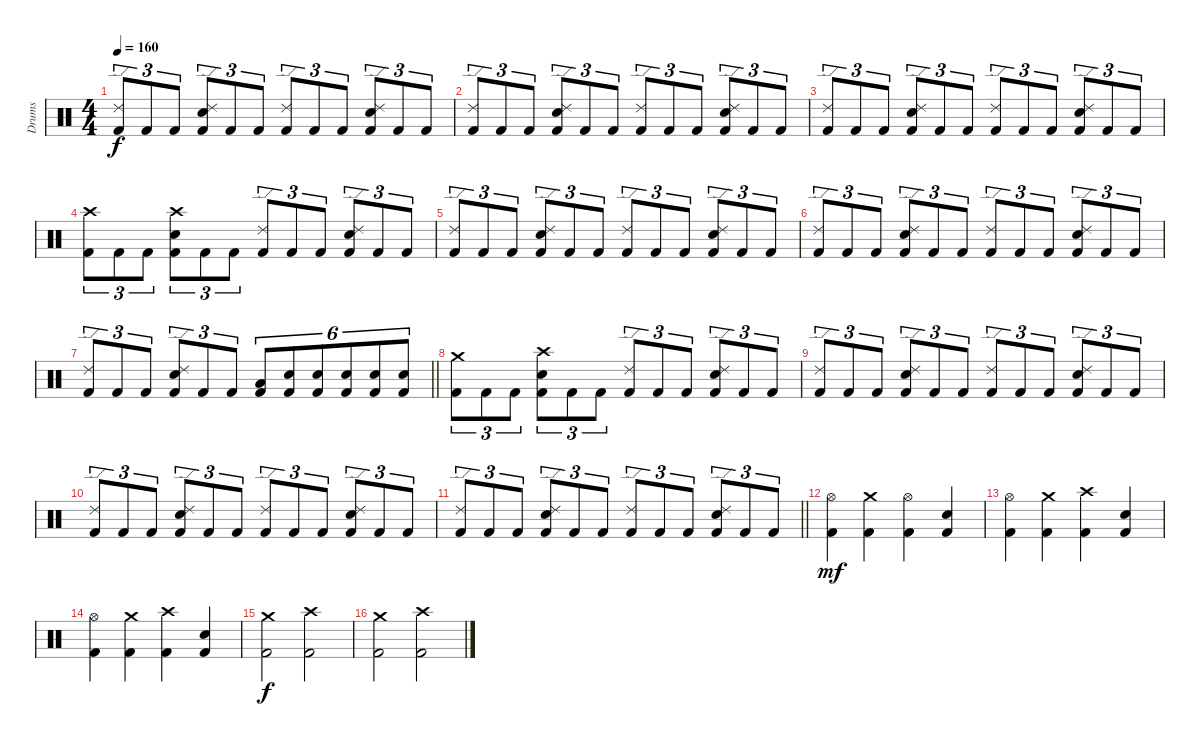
\track ("Drums" "Drums") {instrument percussion}
\staff {score}
\articulation defaults
\ts (4 4)
\tempo 160
\clef neutral
\ks c
("Ride (edge) 2" "Kick (hit) 2").8{tu (3 2) dy f} "Kick (hit) 2".8{tu (3 2)} "Kick (hit) 2".8{tu (3 2)} ("Ride (edge) 2" "Snare (hit) 2" "Kick (hit) 2").8{tu (3 2)} "Kick (hit) 2".8{tu (3 2)} "Kick (hit) 2".8{tu (3 2)} ("Ride (edge) 2" "Kick (hit) 2").8{tu (3 2)} "Kick (hit) 2".8{tu (3 2)} "Kick (hit) 2".8{tu (3 2)} ("Ride (edge) 2" "Snare (hit) 2" "Kick (hit) 2").8{tu (3 2)} "Kick (hit) 2".8{tu (3 2)} "Kick (hit) 2".8{tu (3 2)} |
("Ride (edge) 2" "Kick (hit) 2").8{tu (3 2)} "Kick (hit) 2".8{tu (3 2)} "Kick (hit) 2".8{tu (3 2)} ("Ride (edge) 2" "Snare (hit) 2" "Kick (hit) 2").8{tu (3 2)} "Kick (hit) 2".8{tu (3 2)} "Kick (hit) 2".8{tu (3 2)} ("Ride (edge) 2" "Kick (hit) 2").8{tu (3 2)} "Kick (hit) 2".8{tu (3 2)} "Kick (hit) 2".8{tu (3 2)} ("Ride (edge) 2" "Snare (hit) 2" "Kick (hit) 2").8{tu (3 2)} "Kick (hit) 2".8{tu (3 2)} "Kick (hit) 2".8{tu (3 2)} |
("Ride (edge) 2" "Kick (hit) 2").8{tu (3 2)} "Kick (hit) 2".8{tu (3 2)} "Kick (hit) 2".8{tu (3 2)} ("Ride (edge) 2" "Snare (hit) 2" "Kick (hit) 2").8{tu (3 2)} "Kick (hit) 2".8{tu (3 2)} "Kick (hit) 2".8{tu (3 2)} ("Ride (edge) 2" "Kick (hit) 2").8{tu (3 2)} "Kick (hit) 2".8{tu (3 2)} "Kick (hit) 2".8{tu (3 2)} ("Ride (edge) 2" "Snare (hit) 2" "Kick (hit) 2").8{tu (3 2)} "Kick (hit) 2".8{tu (3 2)} "Kick (hit) 2".8{tu (3 2)} |
("Crash high (hit)" "Kick (hit) 2").8{tu (3 2)} "Kick (hit) 2".8{tu (3 2)} "Kick (hit) 2".8{tu (3 2)} ("Crash high (hit)" "Snare (hit) 2" "Kick (hit) 2").8{tu (3 2)} "Kick (hit) 2".8{tu (3 2)} "Kick (hit) 2".8{tu (3 2)} ("Ride (edge) 2" "Kick (hit) 2").8{tu (3 2)} "Kick (hit) 2".8{tu (3 2)} "Kick (hit) 2".8{tu (3 2)} ("Ride (edge) 2" "Snare (hit) 2" "Kick (hit) 2").8{tu (3 2)} "Kick (hit) 2".8{tu (3 2)} "Kick (hit) 2".8{tu (3 2)} |
("Ride (edge) 2" "Kick (hit) 2").8{tu (3 2)} "Kick (hit) 2".8{tu (3 2)} "Kick (hit) 2".8{tu (3 2)} ("Ride (edge) 2" "Snare (hit) 2" "Kick (hit) 2").8{tu (3 2)} "Kick (hit) 2".8{tu (3 2)} "Kick (hit) 2".8{tu (3 2)} ("Ride (edge) 2" "Kick (hit) 2").8{tu (3 2)} "Kick (hit) 2".8{tu (3 2)} "Kick (hit) 2".8{tu (3 2)} ("Ride (edge) 2" "Snare (hit) 2" "Kick (hit) 2").8{tu (3 2)} "Kick (hit) 2".8{tu (3 2)} "Kick (hit) 2".8{tu (3 2)} |
("Ride (edge) 2" "Kick (hit) 2").8{tu (3 2)} "Kick (hit) 2".8{tu (3 2)} "Kick (hit) 2".8{tu (3 2)} ("Ride (edge) 2" "Snare (hit) 2" "Kick (hit) 2").8{tu (3 2)} "Kick (hit) 2".8{tu (3 2)} "Kick (hit) 2".8{tu (3 2)} ("Ride (edge) 2" "Kick (hit) 2").8{tu (3 2)} "Kick (hit) 2".8{tu (3 2)} "Kick (hit) 2".8{tu (3 2)} ("Ride (edge) 2" "Snare (hit) 2" "Kick (hit) 2").8{tu (3 2)} "Kick (hit) 2".8{tu (3 2)} "Kick (hit) 2".8{tu (3 2)} |
\barLineRight lightlight
("Ride (edge) 2" "Kick (hit) 2").8{tu (3 2)} "Kick (hit) 2".8{tu (3 2)} "Kick (hit) 2".8{tu (3 2)} ("Ride (edge) 2" "Snare (hit) 2" "Kick (hit) 2").8{tu (3 2)} "Kick (hit) 2".8{tu (3 2)} "Kick (hit) 2".8{tu (3 2)} ("Low Tom (hit)" "Kick (hit) 2").8{tu (6 4)} ("Snare (hit) 2" "Kick (hit) 2").8{tu (6 4)} ("Snare (hit) 2" "Kick (hit) 2").8{tu (6 4)} ("Snare (hit) 2" "Kick (hit) 2").8{tu (6 4)} ("Snare (hit) 2" "Kick (hit) 2").8{tu (6 4)} ("Snare (hit) 2" "Kick (hit) 2").8{tu (6 4)} |
\ks aminor
("Crash medium (hit)" "Kick (hit) 2").8{tu (3 2)} "Kick (hit) 2".8{tu (3 2)} "Kick (hit) 2".8{tu (3 2)} ("Crash high (hit)" "Snare (hit) 2" "Kick (hit) 2").8{tu (3 2)} "Kick (hit) 2".8{tu (3 2)} "Kick (hit) 2".8{tu (3 2)} ("Ride (edge) 2" "Kick (hit) 2").8{tu (3 2)} "Kick (hit) 2".8{tu (3 2)} "Kick (hit) 2".8{tu (3 2)} ("Ride (edge) 2" "Snare (hit) 2" "Kick (hit) 2").8{tu (3 2)} "Kick (hit) 2".8{tu (3 2)} "Kick (hit) 2".8{tu (3 2)} |
("Ride (edge) 2" "Kick (hit) 2").8{tu (3 2)} "Kick (hit) 2".8{tu (3 2)} "Kick (hit) 2".8{tu (3 2)} ("Ride (edge) 2" "Snare (hit) 2" "Kick (hit) 2").8{tu (3 2)} "Kick (hit) 2".8{tu (3 2)} "Kick (hit) 2".8{tu (3 2)} ("Ride (edge) 2" "Kick (hit) 2").8{tu (3 2)} "Kick (hit) 2".8{tu (3 2)} "Kick (hit) 2".8{tu (3 2)} ("Ride (edge) 2" "Snare (hit) 2" "Kick (hit) 2").8{tu (3 2)} "Kick (hit) 2".8{tu (3 2)} "Kick (hit) 2".8{tu (3 2)} |
("Ride (edge) 2" "Kick (hit) 2").8{tu (3 2)} "Kick (hit) 2".8{tu (3 2)} "Kick (hit) 2".8{tu (3 2)} ("Ride (edge) 2" "Snare (hit) 2" "Kick (hit) 2").8{tu (3 2)} "Kick (hit) 2".8{tu (3 2)} "Kick (hit) 2".8{tu (3 2)} ("Ride (edge) 2" "Kick (hit) 2").8{tu (3 2)} "Kick (hit) 2".8{tu (3 2)} "Kick (hit) 2".8{tu (3 2)} ("Ride (edge) 2" "Snare (hit) 2" "Kick (hit) 2").8{tu (3 2)} "Kick (hit) 2".8{tu (3 2)} "Kick (hit) 2".8{tu (3 2)} |
\barLineRight lightlight
("Ride (edge) 2" "Kick (hit) 2").8{tu (3 2)} "Kick (hit) 2".8{tu (3 2)} "Kick (hit) 2".8{tu (3 2)} ("Ride (edge) 2" "Snare (hit) 2" "Kick (hit) 2").8{tu (3 2)} "Kick (hit) 2".8{tu (3 2)} "Kick (hit) 2".8{tu (3 2)} ("Ride (edge) 2" "Kick (hit) 2").8{tu (3 2)} "Kick (hit) 2".8{tu (3 2)} "Kick (hit) 2".8{tu (3 2)} ("Ride (edge) 2" "Snare (hit) 2" "Kick (hit) 2").8{tu (3 2)} "Kick (hit) 2".8{tu (3 2)} "Kick (hit) 2".8{tu (3 2)} |
("Hi-Hat (open)" "Kick (hit) 2").4{dy mf} ("Crash medium (hit)" "Kick (hit) 2").4 ("Hi-Hat (open)" "Kick (hit) 2").4 ("Snare (hit) 2" "Kick (hit) 2").4 |
("Hi-Hat (open)" "Kick (hit) 2").4 ("Crash medium (hit)" "Kick (hit) 2").4 ("Crash high (hit)" "Kick (hit) 2").4 ("Snare (hit) 2" "Kick (hit) 2").4 |
("Hi-Hat (open)" "Kick (hit) 2").4 ("Crash medium (hit)" "Kick (hit) 2").4 ("Crash high (hit)" "Kick (hit) 2").4 ("Snare (hit) 2" "Kick (hit) 2").4 |
("Crash medium (hit)" "Kick (hit) 2").2{dy f} ("Crash high (hit)" "Kick (hit) 2").2 |
("Crash medium (hit)" "Kick (hit) 2").2 ("Crash high (hit)" "Kick (hit) 2").2
